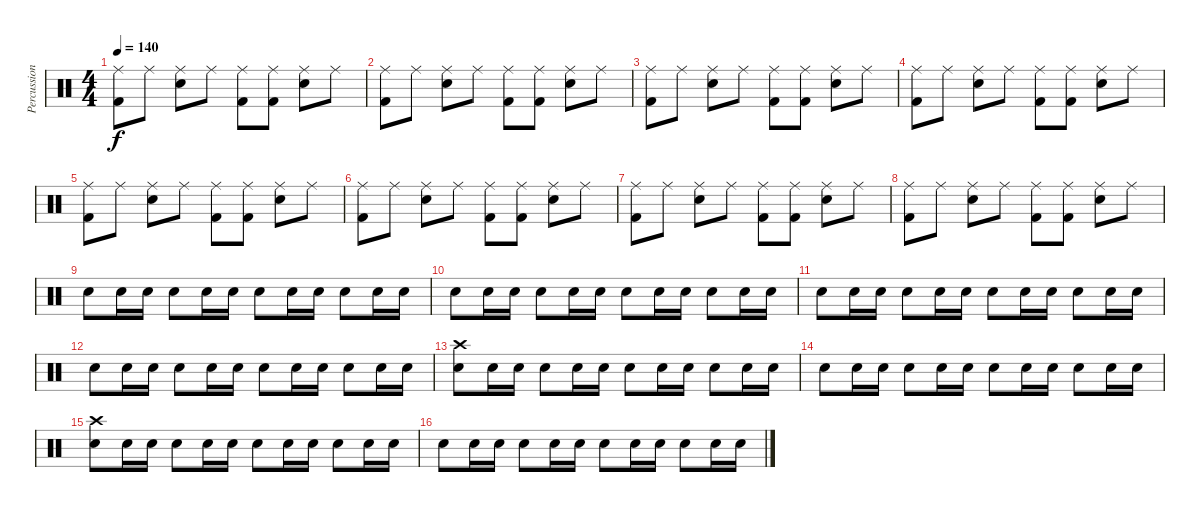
\track ("Percussion" "Percussion") {instrument percussion}
\staff {score}
\articulation defaults
\ts (4 4)
\tempo 140
\clef neutral
\ks c
("Ride (middle)" "Kick (hit) 2").8{dy f} "Ride (middle)".8 ("Ride (middle)" "Snare (hit) 2").8 "Ride (middle)".8 ("Ride (middle)" "Kick (hit) 2").8 ("Ride (middle)" "Kick (hit) 2").8 ("Ride (middle)" "Snare (hit) 2").8 "Ride (middle)".8 |
("Ride (middle)" "Kick (hit) 2").8 "Ride (middle)".8 ("Ride (middle)" "Snare (hit) 2").8 "Ride (middle)".8 ("Ride (middle)" "Kick (hit) 2").8 ("Ride (middle)" "Kick (hit) 2").8 ("Ride (middle)" "Snare (hit) 2").8 "Ride (middle)".8 |
("Ride (middle)" "Kick (hit) 2").8 "Ride (middle)".8 ("Ride (middle)" "Snare (hit) 2").8 "Ride (middle)".8 ("Ride (middle)" "Kick (hit) 2").8 ("Ride (middle)" "Kick (hit) 2").8 ("Ride (middle)" "Snare (hit) 2").8 "Ride (middle)".8 |
("Ride (middle)" "Kick (hit) 2").8 "Ride (middle)".8 ("Ride (middle)" "Snare (hit) 2").8 "Ride (middle)".8 ("Ride (middle)" "Kick (hit) 2").8 ("Ride (middle)" "Kick (hit) 2").8 ("Ride (middle)" "Snare (hit) 2").8 "Ride (middle)".8 |
("Ride (middle)" "Kick (hit) 2").8 "Ride (middle)".8 ("Ride (middle)" "Snare (hit) 2").8 "Ride (middle)".8 ("Ride (middle)" "Kick (hit) 2").8 ("Ride (middle)" "Kick (hit) 2").8 ("Ride (middle)" "Snare (hit) 2").8 "Ride (middle)".8 |
("Ride (middle)" "Kick (hit) 2").8 "Ride (middle)".8 ("Ride (middle)" "Snare (hit) 2").8 "Ride (middle)".8 ("Ride (middle)" "Kick (hit) 2").8 ("Ride (middle)" "Kick (hit) 2").8 ("Ride (middle)" "Snare (hit) 2").8 "Ride (middle)".8 |
("Ride (middle)" "Kick (hit) 2").8 "Ride (middle)".8 ("Ride (middle)" "Snare (hit) 2").8 "Ride (middle)".8 ("Ride (middle)" "Kick (hit) 2").8 ("Ride (middle)" "Kick (hit) 2").8 ("Ride (middle)" "Snare (hit) 2").8 "Ride (middle)".8 |
("Ride (middle)" "Kick (hit) 2").8 "Ride (middle)".8 ("Ride (middle)" "Snare (hit) 2").8 "Ride (middle)".8 ("Ride (middle)" "Kick (hit) 2").8 ("Ride (middle)" "Kick (hit) 2").8 ("Ride (middle)" "Snare (hit) 2").8 "Ride (middle)".8 |
"Snare (hit) 2".8 "Snare (hit) 2".16 "Snare (hit) 2".16 "Snare (hit) 2".8 "Snare (hit) 2".16 "Snare (hit) 2".16 "Snare (hit) 2".8 "Snare (hit) 2".16 "Snare (hit) 2".16 "Snare (hit) 2".8 "Snare (hit) 2".16 "Snare (hit) 2".16 |
"Snare (hit) 2".8 "Snare (hit) 2".16 "Snare (hit) 2".16 "Snare (hit) 2".8 "Snare (hit) 2".16 "Snare (hit) 2".16 "Snare (hit) 2".8 "Snare (hit) 2".16 "Snare (hit) 2".16 "Snare (hit) 2".8 "Snare (hit) 2".16 "Snare (hit) 2".16 |
"Snare (hit) 2".8 "Snare (hit) 2".16 "Snare (hit) 2".16 "Snare (hit) 2".8 "Snare (hit) 2".16 "Snare (hit) 2".16 "Snare (hit) 2".8 "Snare (hit) 2".16 "Snare (hit) 2".16 "Snare (hit) 2".8 "Snare (hit) 2".16 "Snare (hit) 2".16 |
"Snare (hit) 2".8 "Snare (hit) 2".16 "Snare (hit) 2".16 "Snare (hit) 2".8 "Snare (hit) 2".16 "Snare (hit) 2".16 "Snare (hit) 2".8 "Snare (hit) 2".16 "Snare (hit) 2".16 "Snare (hit) 2".8 "Snare (hit) 2".16 "Snare (hit) 2".16 |
("Crash high (hit)" "Snare (hit) 2").8 "Snare (hit) 2".16 "Snare (hit) 2".16 "Snare (hit) 2".8 "Snare (hit) 2".16 "Snare (hit) 2".16 "Snare (hit) 2".8 "Snare (hit) 2".16 "Snare (hit) 2".16 "Snare (hit) 2".8 "Snare (hit) 2".16 "Snare (hit) 2".16 |
"Snare (hit) 2".8 "Snare (hit) 2".16 "Snare (hit) 2".16 "Snare (hit) 2".8 "Snare (hit) 2".16 "Snare (hit) 2".16 "Snare (hit) 2".8 "Snare (hit) 2".16 "Snare (hit) 2".16 "Snare (hit) 2".8 "Snare (hit) 2".16 "Snare (hit) 2".16 |
("Crash high (hit)" "Snare (hit) 2").8 "Snare (hit) 2".16 "Snare (hit) 2".16 "Snare (hit) 2".8 "Snare (hit) 2".16 "Snare (hit) 2".16 "Snare (hit) 2".8 "Snare (hit) 2".16 "Snare (hit) 2".16 "Snare (hit) 2".8 "Snare (hit) 2".16 "Snare (hit) 2".16 |
"Snare (hit) 2".8 "Snare (hit) 2".16 "Snare (hit) 2".16 "Snare (hit) 2".8 "Snare (hit) 2".16 "Snare (hit) 2".16 "Snare (hit) 2".8 "Snare (hit) 2".16 "Snare (hit) 2".16 "Snare (hit) 2".8 "Snare (hit) 2".16 "Snare (hit) 2".16
